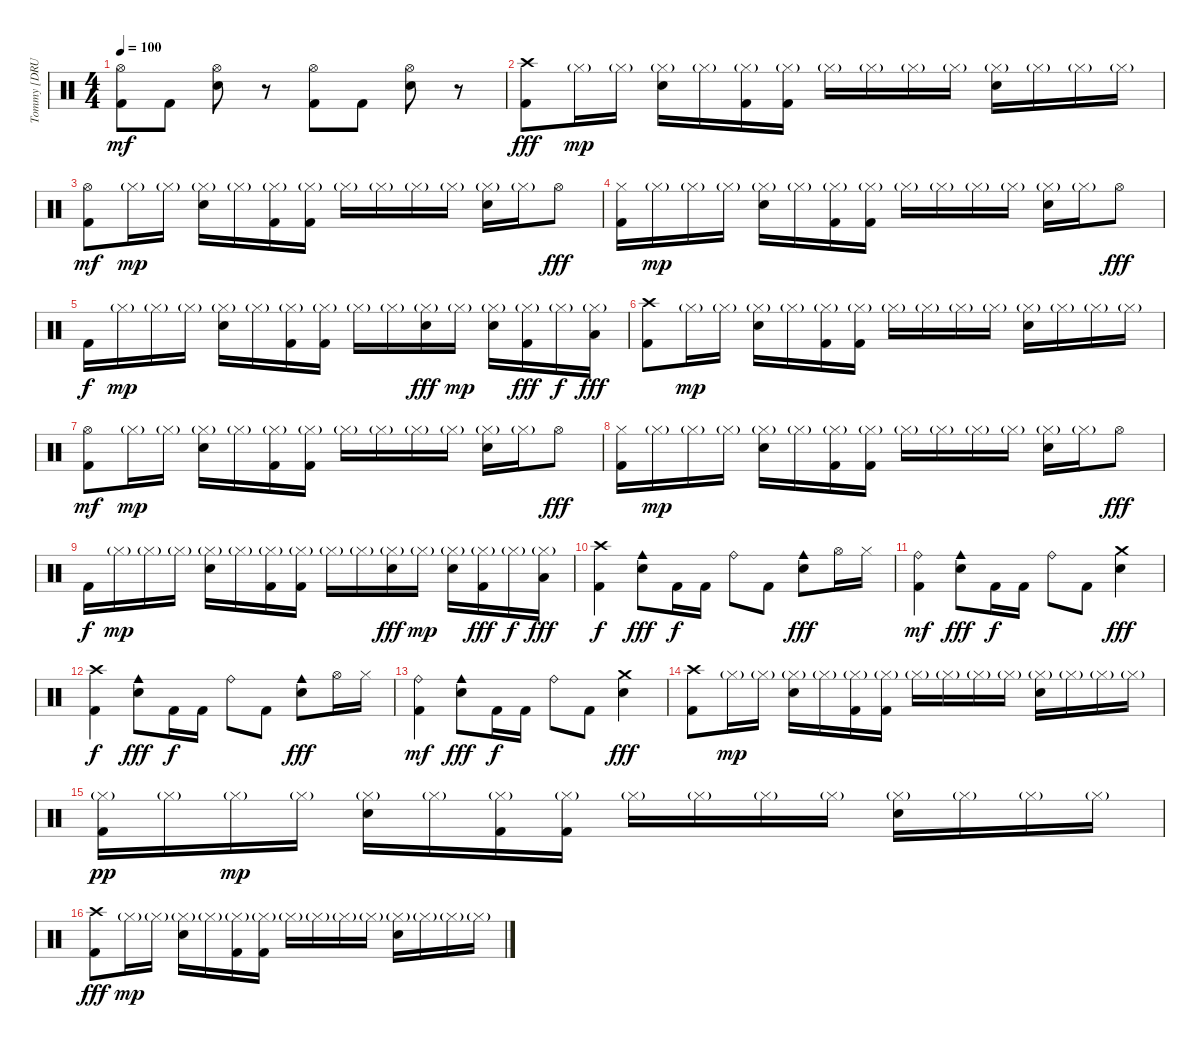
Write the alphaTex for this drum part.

\track ("Tommy [DRUMS]" "Tommy [DRU") {instrument percussion}
\staff {score}
\articulation defaults
\ts (4 4)
\tempo 100
\clef neutral
\ks c
("Hi-Hat (open)" "Kick (hit) 2").8{dy mf} "Kick (hit) 2".8 ("Hi-Hat (open)" "Snare (hit) 2").8 r.8 ("Hi-Hat (open)" "Kick (hit) 2").8 "Kick (hit) 2".8 ("Hi-Hat (open)" "Snare (hit) 2").8 r.8 |
("Crash high (hit)" "Kick (hit) 2").8{dy fff} "Hi-Hat (closed)"{g}.16{dy mp} "Hi-Hat (closed)"{g}.16 ("Hi-Hat (closed)"{g} "Snare (hit) 2").16 "Hi-Hat (closed)"{g}.16 ("Hi-Hat (closed)"{g} "Kick (hit) 2").16 ("Hi-Hat (closed)"{g} "Kick (hit) 2").16 "Hi-Hat (closed)"{g}.16 "Hi-Hat (closed)"{g}.16 "Hi-Hat (closed)"{g}.16 "Hi-Hat (closed)"{g}.16 ("Hi-Hat (closed)"{g} "Snare (hit) 2").16 "Hi-Hat (closed)"{g}.16 "Hi-Hat (closed)"{g}.16 "Hi-Hat (closed)"{g}.16 |
("Hi-Hat (open)" "Kick (hit) 2").8{dy mf} "Hi-Hat (closed)"{g}.16{dy mp} "Hi-Hat (closed)"{g}.16 ("Hi-Hat (closed)"{g} "Snare (hit) 2").16 "Hi-Hat (closed)"{g}.16 ("Hi-Hat (closed)"{g} "Kick (hit) 2").16 ("Hi-Hat (closed)"{g} "Kick (hit) 2").16 "Hi-Hat (closed)"{g}.16 "Hi-Hat (closed)"{g}.16 "Hi-Hat (closed)"{g}.16 "Hi-Hat (closed)"{g}.16 ("Hi-Hat (closed)"{g} "Snare (hit) 2").16 "Hi-Hat (closed)"{g}.16 "Hi-Hat (open)".8{dy fff} |
("Hi-Hat (closed)" "Kick (hit) 2").16 "Hi-Hat (closed)"{g}.16{dy mp} "Hi-Hat (closed)"{g}.16 "Hi-Hat (closed)"{g}.16 ("Hi-Hat (closed)"{g} "Snare (hit) 2").16 "Hi-Hat (closed)"{g}.16 ("Hi-Hat (closed)"{g} "Kick (hit) 2").16 ("Hi-Hat (closed)"{g} "Kick (hit) 2").16 "Hi-Hat (closed)"{g}.16 "Hi-Hat (closed)"{g}.16 "Hi-Hat (closed)"{g}.16 "Hi-Hat (closed)"{g}.16 ("Hi-Hat (closed)"{g} "Snare (hit) 2").16 "Hi-Hat (closed)"{g}.16 "Hi-Hat (open)".8{dy fff} |
"Kick (hit) 2".16{dy f} "Hi-Hat (closed)"{g}.16{dy mp} "Hi-Hat (closed)"{g}.16 "Hi-Hat (closed)"{g}.16 ("Hi-Hat (closed)"{g} "Snare (hit) 2").16 "Hi-Hat (closed)"{g}.16 ("Hi-Hat (closed)"{g} "Kick (hit) 2").16 ("Hi-Hat (closed)"{g} "Kick (hit) 2").16 "Hi-Hat (closed)"{g}.16 "Hi-Hat (closed)"{g}.16 ("Hi-Hat (closed)"{g} "Snare (hit) 2").16{dy fff} "Hi-Hat (closed)"{g}.16{dy mp} ("Hi-Hat (closed)"{g} "Snare (hit) 2").16 ("Hi-Hat (closed)"{g} "Kick (hit) 2").16{dy fff} "Hi-Hat (closed)"{g}.16{dy f} ("Hi-Hat (closed)"{g} "Low Tom (hit)").16{dy fff} |
("Crash high (hit)" "Kick (hit) 2").8 "Hi-Hat (closed)"{g}.16{dy mp} "Hi-Hat (closed)"{g}.16 ("Hi-Hat (closed)"{g} "Snare (hit) 2").16 "Hi-Hat (closed)"{g}.16 ("Hi-Hat (closed)"{g} "Kick (hit) 2").16 ("Hi-Hat (closed)"{g} "Kick (hit) 2").16 "Hi-Hat (closed)"{g}.16 "Hi-Hat (closed)"{g}.16 "Hi-Hat (closed)"{g}.16 "Hi-Hat (closed)"{g}.16 ("Hi-Hat (closed)"{g} "Snare (hit) 2").16 "Hi-Hat (closed)"{g}.16 "Hi-Hat (closed)"{g}.16 "Hi-Hat (closed)"{g}.16 |
("Hi-Hat (open)" "Kick (hit) 2").8{dy mf} "Hi-Hat (closed)"{g}.16{dy mp} "Hi-Hat (closed)"{g}.16 ("Hi-Hat (closed)"{g} "Snare (hit) 2").16 "Hi-Hat (closed)"{g}.16 ("Hi-Hat (closed)"{g} "Kick (hit) 2").16 ("Hi-Hat (closed)"{g} "Kick (hit) 2").16 "Hi-Hat (closed)"{g}.16 "Hi-Hat (closed)"{g}.16 "Hi-Hat (closed)"{g}.16 "Hi-Hat (closed)"{g}.16 ("Hi-Hat (closed)"{g} "Snare (hit) 2").16 "Hi-Hat (closed)"{g}.16 "Hi-Hat (open)".8{dy fff} |
("Hi-Hat (closed)" "Kick (hit) 2").16 "Hi-Hat (closed)"{g}.16{dy mp} "Hi-Hat (closed)"{g}.16 "Hi-Hat (closed)"{g}.16 ("Hi-Hat (closed)"{g} "Snare (hit) 2").16 "Hi-Hat (closed)"{g}.16 ("Hi-Hat (closed)"{g} "Kick (hit) 2").16 ("Hi-Hat (closed)"{g} "Kick (hit) 2").16 "Hi-Hat (closed)"{g}.16 "Hi-Hat (closed)"{g}.16 "Hi-Hat (closed)"{g}.16 "Hi-Hat (closed)"{g}.16 ("Hi-Hat (closed)"{g} "Snare (hit) 2").16 "Hi-Hat (closed)"{g}.16 "Hi-Hat (open)".8{dy fff} |
"Kick (hit) 2".16{dy f} "Hi-Hat (closed)"{g}.16{dy mp} "Hi-Hat (closed)"{g}.16 "Hi-Hat (closed)"{g}.16 ("Hi-Hat (closed)"{g} "Snare (hit) 2").16 "Hi-Hat (closed)"{g}.16 ("Hi-Hat (closed)"{g} "Kick (hit) 2").16 ("Hi-Hat (closed)"{g} "Kick (hit) 2").16 "Hi-Hat (closed)"{g}.16 "Hi-Hat (closed)"{g}.16 ("Hi-Hat (closed)"{g} "Snare (hit) 2").16{dy fff} "Hi-Hat (closed)"{g}.16{dy mp} ("Hi-Hat (closed)"{g} "Snare (hit) 2").16 ("Hi-Hat (closed)"{g} "Kick (hit) 2").16{dy fff} "Hi-Hat (closed)"{g}.16{dy f} ("Hi-Hat (closed)"{g} "Low Tom (hit)").16{dy fff} |
("Crash high (hit)" "Kick (hit) 2").4{dy f} ("Cowbell medium (hit)" "Snare (hit) 2").8{dy fff} "Kick (hit) 2".16{dy f} "Kick (hit) 2".16 "Ride (bell)".8 "Kick (hit) 2".8 ("Cowbell medium (hit)" "Snare (hit) 2").8{dy fff} "Hi-Hat (open)".16 "Hi-Hat (closed)".16 |
("Ride (bell)" "Kick (hit) 2").4{dy mf} ("Cowbell medium (hit)" "Snare (hit) 2").8{dy fff} "Kick (hit) 2".16{dy f} "Kick (hit) 2".16 "Ride (bell)".8 "Kick (hit) 2".8 ("Crash medium (hit)" "Snare (hit) 2").4{dy fff} |
("Crash high (hit)" "Kick (hit) 2").4{dy f} ("Cowbell medium (hit)" "Snare (hit) 2").8{dy fff} "Kick (hit) 2".16{dy f} "Kick (hit) 2".16 "Ride (bell)".8 "Kick (hit) 2".8 ("Cowbell medium (hit)" "Snare (hit) 2").8{dy fff} "Hi-Hat (open)".16 "Hi-Hat (closed)".16 |
("Ride (bell)" "Kick (hit) 2").4{dy mf} ("Cowbell medium (hit)" "Snare (hit) 2").8{dy fff} "Kick (hit) 2".16{dy f} "Kick (hit) 2".16 "Ride (bell)".8 "Kick (hit) 2".8 ("Crash medium (hit)" "Snare (hit) 2").4{dy fff} |
("Crash high (hit)" "Kick (hit) 2").8 "Hi-Hat (closed)"{g}.16{dy mp} "Hi-Hat (closed)"{g}.16 ("Hi-Hat (closed)"{g} "Snare (hit) 2").16 "Hi-Hat (closed)"{g}.16 ("Hi-Hat (closed)"{g} "Kick (hit) 2").16 ("Hi-Hat (closed)"{g} "Kick (hit) 2").16 "Hi-Hat (closed)"{g}.16 "Hi-Hat (closed)"{g}.16 "Hi-Hat (closed)"{g}.16 "Hi-Hat (closed)"{g}.16 ("Hi-Hat (closed)"{g} "Snare (hit) 2").16 "Hi-Hat (closed)"{g}.16 "Hi-Hat (closed)"{g}.16 "Hi-Hat (closed)"{g}.16 |
("Hi-Hat (closed)"{g} "Kick (hit) 2").16{dy pp} "Hi-Hat (closed)"{g}.16 "Hi-Hat (closed)"{g}.16{dy mp} "Hi-Hat (closed)"{g}.16 ("Hi-Hat (closed)"{g} "Snare (hit) 2").16 "Hi-Hat (closed)"{g}.16 ("Hi-Hat (closed)"{g} "Kick (hit) 2").16 ("Hi-Hat (closed)"{g} "Kick (hit) 2").16 "Hi-Hat (closed)"{g}.16 "Hi-Hat (closed)"{g}.16 "Hi-Hat (closed)"{g}.16 "Hi-Hat (closed)"{g}.16 ("Hi-Hat (closed)"{g} "Snare (hit) 2").16 "Hi-Hat (closed)"{g}.16 "Hi-Hat (closed)"{g}.16 "Hi-Hat (closed)"{g}.16 |
("Crash high (hit)" "Kick (hit) 2").8{dy fff} "Hi-Hat (closed)"{g}.16{dy mp} "Hi-Hat (closed)"{g}.16 ("Hi-Hat (closed)"{g} "Snare (hit) 2").16 "Hi-Hat (closed)"{g}.16 ("Hi-Hat (closed)"{g} "Kick (hit) 2").16 ("Hi-Hat (closed)"{g} "Kick (hit) 2").16 "Hi-Hat (closed)"{g}.16 "Hi-Hat (closed)"{g}.16 "Hi-Hat (closed)"{g}.16 "Hi-Hat (closed)"{g}.16 ("Hi-Hat (closed)"{g} "Snare (hit) 2").16 "Hi-Hat (closed)"{g}.16 "Hi-Hat (closed)"{g}.16 "Hi-Hat (closed)"{g}.16
